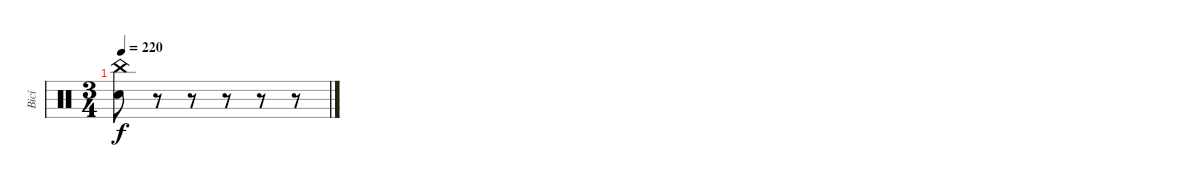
\track ("Bicí" "Bicí") {instrument percussion}
\staff {score}
\articulation defaults
\ts (3 4)
\tempo 220
\clef neutral
\ks c
("China (hit)" "Electric Snare (hit)").8{dy f} r.8 r.8 r.8 r.8 r.8
